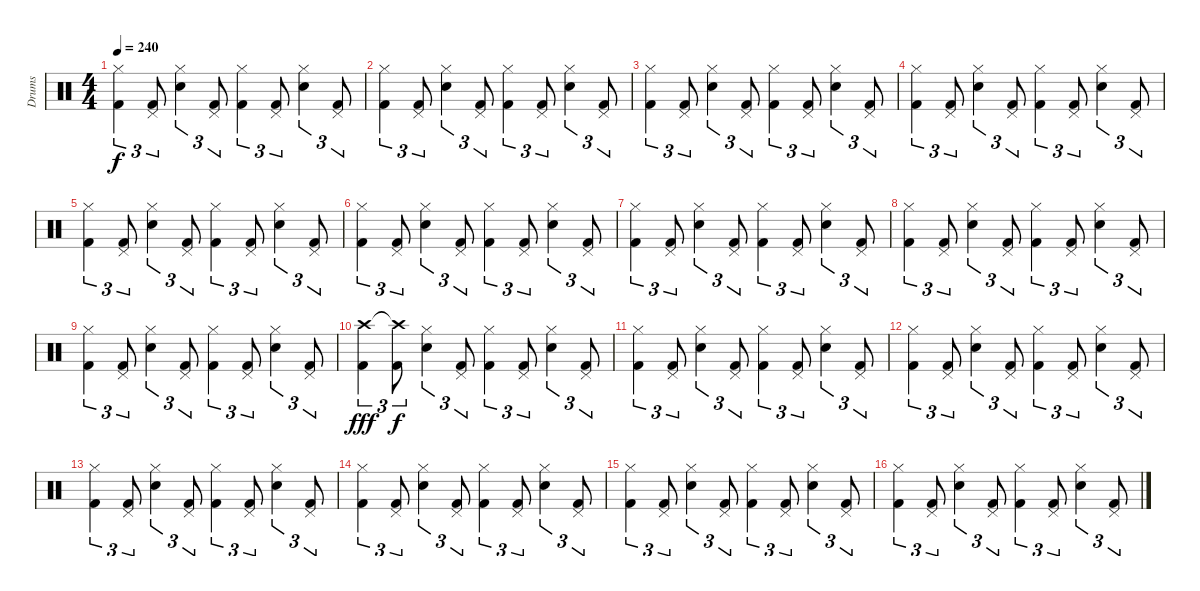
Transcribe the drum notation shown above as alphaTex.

\track ("Drums" "Drums") {instrument percussion}
\staff {score}
\articulation defaults
\ts (4 4)
\tempo 240
\clef neutral
\ks c
("Hi-Hat (closed)" "Kick (hit) 2").4{tu (3 2) dy f} ("Pedal Hi-Hat (hit)" "Kick (hit) 2").8{tu (3 2)} ("Hi-Hat (closed)" "Snare (hit) 2").4{tu (3 2)} ("Pedal Hi-Hat (hit)" "Kick (hit) 2").8{tu (3 2)} ("Hi-Hat (closed)" "Kick (hit) 2").4{tu (3 2)} ("Pedal Hi-Hat (hit)" "Kick (hit) 2").8{tu (3 2)} ("Hi-Hat (closed)" "Snare (hit) 2").4{tu (3 2)} ("Pedal Hi-Hat (hit)" "Kick (hit) 2").8{tu (3 2)} |
("Hi-Hat (closed)" "Kick (hit) 2").4{tu (3 2)} ("Pedal Hi-Hat (hit)" "Kick (hit) 2").8{tu (3 2)} ("Hi-Hat (closed)" "Snare (hit) 2").4{tu (3 2)} ("Pedal Hi-Hat (hit)" "Kick (hit) 2").8{tu (3 2)} ("Hi-Hat (closed)" "Kick (hit) 2").4{tu (3 2)} ("Pedal Hi-Hat (hit)" "Kick (hit) 2").8{tu (3 2)} ("Hi-Hat (closed)" "Snare (hit) 2").4{tu (3 2)} ("Pedal Hi-Hat (hit)" "Kick (hit) 2").8{tu (3 2)} |
("Hi-Hat (closed)" "Kick (hit) 2").4{tu (3 2)} ("Pedal Hi-Hat (hit)" "Kick (hit) 2").8{tu (3 2)} ("Hi-Hat (closed)" "Snare (hit) 2").4{tu (3 2)} ("Pedal Hi-Hat (hit)" "Kick (hit) 2").8{tu (3 2)} ("Hi-Hat (closed)" "Kick (hit) 2").4{tu (3 2)} ("Pedal Hi-Hat (hit)" "Kick (hit) 2").8{tu (3 2)} ("Hi-Hat (closed)" "Snare (hit) 2").4{tu (3 2)} ("Pedal Hi-Hat (hit)" "Kick (hit) 2").8{tu (3 2)} |
("Hi-Hat (closed)" "Kick (hit) 2").4{tu (3 2)} ("Pedal Hi-Hat (hit)" "Kick (hit) 2").8{tu (3 2)} ("Hi-Hat (closed)" "Snare (hit) 2").4{tu (3 2)} ("Pedal Hi-Hat (hit)" "Kick (hit) 2").8{tu (3 2)} ("Hi-Hat (closed)" "Kick (hit) 2").4{tu (3 2)} ("Pedal Hi-Hat (hit)" "Kick (hit) 2").8{tu (3 2)} ("Hi-Hat (closed)" "Snare (hit) 2").4{tu (3 2)} ("Pedal Hi-Hat (hit)" "Kick (hit) 2").8{tu (3 2)} |
("Hi-Hat (closed)" "Kick (hit) 2").4{tu (3 2)} ("Pedal Hi-Hat (hit)" "Kick (hit) 2").8{tu (3 2)} ("Hi-Hat (closed)" "Snare (hit) 2").4{tu (3 2)} ("Pedal Hi-Hat (hit)" "Kick (hit) 2").8{tu (3 2)} ("Hi-Hat (closed)" "Kick (hit) 2").4{tu (3 2)} ("Pedal Hi-Hat (hit)" "Kick (hit) 2").8{tu (3 2)} ("Hi-Hat (closed)" "Snare (hit) 2").4{tu (3 2)} ("Pedal Hi-Hat (hit)" "Kick (hit) 2").8{tu (3 2)} |
("Hi-Hat (closed)" "Kick (hit) 2").4{tu (3 2)} ("Pedal Hi-Hat (hit)" "Kick (hit) 2").8{tu (3 2)} ("Hi-Hat (closed)" "Snare (hit) 2").4{tu (3 2)} ("Pedal Hi-Hat (hit)" "Kick (hit) 2").8{tu (3 2)} ("Hi-Hat (closed)" "Kick (hit) 2").4{tu (3 2)} ("Pedal Hi-Hat (hit)" "Kick (hit) 2").8{tu (3 2)} ("Hi-Hat (closed)" "Snare (hit) 2").4{tu (3 2)} ("Pedal Hi-Hat (hit)" "Kick (hit) 2").8{tu (3 2)} |
("Hi-Hat (closed)" "Kick (hit) 2").4{tu (3 2)} ("Pedal Hi-Hat (hit)" "Kick (hit) 2").8{tu (3 2)} ("Hi-Hat (closed)" "Snare (hit) 2").4{tu (3 2)} ("Pedal Hi-Hat (hit)" "Kick (hit) 2").8{tu (3 2)} ("Hi-Hat (closed)" "Kick (hit) 2").4{tu (3 2)} ("Pedal Hi-Hat (hit)" "Kick (hit) 2").8{tu (3 2)} ("Hi-Hat (closed)" "Snare (hit) 2").4{tu (3 2)} ("Pedal Hi-Hat (hit)" "Kick (hit) 2").8{tu (3 2)} |
("Hi-Hat (closed)" "Kick (hit) 2").4{tu (3 2)} ("Pedal Hi-Hat (hit)" "Kick (hit) 2").8{tu (3 2)} ("Hi-Hat (closed)" "Snare (hit) 2").4{tu (3 2)} ("Pedal Hi-Hat (hit)" "Kick (hit) 2").8{tu (3 2)} ("Hi-Hat (closed)" "Kick (hit) 2").4{tu (3 2)} ("Pedal Hi-Hat (hit)" "Kick (hit) 2").8{tu (3 2)} ("Hi-Hat (closed)" "Snare (hit) 2").4{tu (3 2)} ("Pedal Hi-Hat (hit)" "Kick (hit) 2").8{tu (3 2)} |
("Hi-Hat (closed)" "Kick (hit) 2").4{tu (3 2)} ("Pedal Hi-Hat (hit)" "Kick (hit) 2").8{tu (3 2)} ("Hi-Hat (closed)" "Snare (hit) 2").4{tu (3 2)} ("Pedal Hi-Hat (hit)" "Kick (hit) 2").8{tu (3 2)} ("Hi-Hat (closed)" "Kick (hit) 2").4{tu (3 2)} ("Pedal Hi-Hat (hit)" "Kick (hit) 2").8{tu (3 2)} ("Hi-Hat (closed)" "Snare (hit) 2").4{tu (3 2)} ("Pedal Hi-Hat (hit)" "Kick (hit) 2").8{tu (3 2)} |
("Crash high (hit)" "Kick (hit) 2").4{tu (3 2) dy fff} ("Crash high (hit)"{t} "Kick (hit) 2").8{tu (3 2) dy f} ("Hi-Hat (closed)" "Snare (hit) 2").4{tu (3 2)} ("Pedal Hi-Hat (hit)" "Kick (hit) 2").8{tu (3 2)} ("Hi-Hat (closed)" "Kick (hit) 2").4{tu (3 2)} ("Pedal Hi-Hat (hit)" "Kick (hit) 2").8{tu (3 2)} ("Hi-Hat (closed)" "Snare (hit) 2").4{tu (3 2)} ("Pedal Hi-Hat (hit)" "Kick (hit) 2").8{tu (3 2)} |
("Hi-Hat (closed)" "Kick (hit) 2").4{tu (3 2)} ("Pedal Hi-Hat (hit)" "Kick (hit) 2").8{tu (3 2)} ("Hi-Hat (closed)" "Snare (hit) 2").4{tu (3 2)} ("Pedal Hi-Hat (hit)" "Kick (hit) 2").8{tu (3 2)} ("Hi-Hat (closed)" "Kick (hit) 2").4{tu (3 2)} ("Pedal Hi-Hat (hit)" "Kick (hit) 2").8{tu (3 2)} ("Hi-Hat (closed)" "Snare (hit) 2").4{tu (3 2)} ("Pedal Hi-Hat (hit)" "Kick (hit) 2").8{tu (3 2)} |
("Hi-Hat (closed)" "Kick (hit) 2").4{tu (3 2)} ("Pedal Hi-Hat (hit)" "Kick (hit) 2").8{tu (3 2)} ("Hi-Hat (closed)" "Snare (hit) 2").4{tu (3 2)} ("Pedal Hi-Hat (hit)" "Kick (hit) 2").8{tu (3 2)} ("Hi-Hat (closed)" "Kick (hit) 2").4{tu (3 2)} ("Pedal Hi-Hat (hit)" "Kick (hit) 2").8{tu (3 2)} ("Hi-Hat (closed)" "Snare (hit) 2").4{tu (3 2)} ("Pedal Hi-Hat (hit)" "Kick (hit) 2").8{tu (3 2)} |
("Hi-Hat (closed)" "Kick (hit) 2").4{tu (3 2)} ("Pedal Hi-Hat (hit)" "Kick (hit) 2").8{tu (3 2)} ("Hi-Hat (closed)" "Snare (hit) 2").4{tu (3 2)} ("Pedal Hi-Hat (hit)" "Kick (hit) 2").8{tu (3 2)} ("Hi-Hat (closed)" "Kick (hit) 2").4{tu (3 2)} ("Pedal Hi-Hat (hit)" "Kick (hit) 2").8{tu (3 2)} ("Hi-Hat (closed)" "Snare (hit) 2").4{tu (3 2)} ("Pedal Hi-Hat (hit)" "Kick (hit) 2").8{tu (3 2)} |
("Hi-Hat (closed)" "Kick (hit) 2").4{tu (3 2)} ("Pedal Hi-Hat (hit)" "Kick (hit) 2").8{tu (3 2)} ("Hi-Hat (closed)" "Snare (hit) 2").4{tu (3 2)} ("Pedal Hi-Hat (hit)" "Kick (hit) 2").8{tu (3 2)} ("Hi-Hat (closed)" "Kick (hit) 2").4{tu (3 2)} ("Pedal Hi-Hat (hit)" "Kick (hit) 2").8{tu (3 2)} ("Hi-Hat (closed)" "Snare (hit) 2").4{tu (3 2)} ("Pedal Hi-Hat (hit)" "Kick (hit) 2").8{tu (3 2)} |
("Hi-Hat (closed)" "Kick (hit) 2").4{tu (3 2)} ("Pedal Hi-Hat (hit)" "Kick (hit) 2").8{tu (3 2)} ("Hi-Hat (closed)" "Snare (hit) 2").4{tu (3 2)} ("Pedal Hi-Hat (hit)" "Kick (hit) 2").8{tu (3 2)} ("Hi-Hat (closed)" "Kick (hit) 2").4{tu (3 2)} ("Pedal Hi-Hat (hit)" "Kick (hit) 2").8{tu (3 2)} ("Hi-Hat (closed)" "Snare (hit) 2").4{tu (3 2)} ("Pedal Hi-Hat (hit)" "Kick (hit) 2").8{tu (3 2)} |
("Hi-Hat (closed)" "Kick (hit) 2").4{tu (3 2)} ("Pedal Hi-Hat (hit)" "Kick (hit) 2").8{tu (3 2)} ("Hi-Hat (closed)" "Snare (hit) 2").4{tu (3 2)} ("Pedal Hi-Hat (hit)" "Kick (hit) 2").8{tu (3 2)} ("Hi-Hat (closed)" "Kick (hit) 2").4{tu (3 2)} ("Pedal Hi-Hat (hit)" "Kick (hit) 2").8{tu (3 2)} ("Hi-Hat (closed)" "Snare (hit) 2").4{tu (3 2)} ("Pedal Hi-Hat (hit)" "Kick (hit) 2").8{tu (3 2)}
